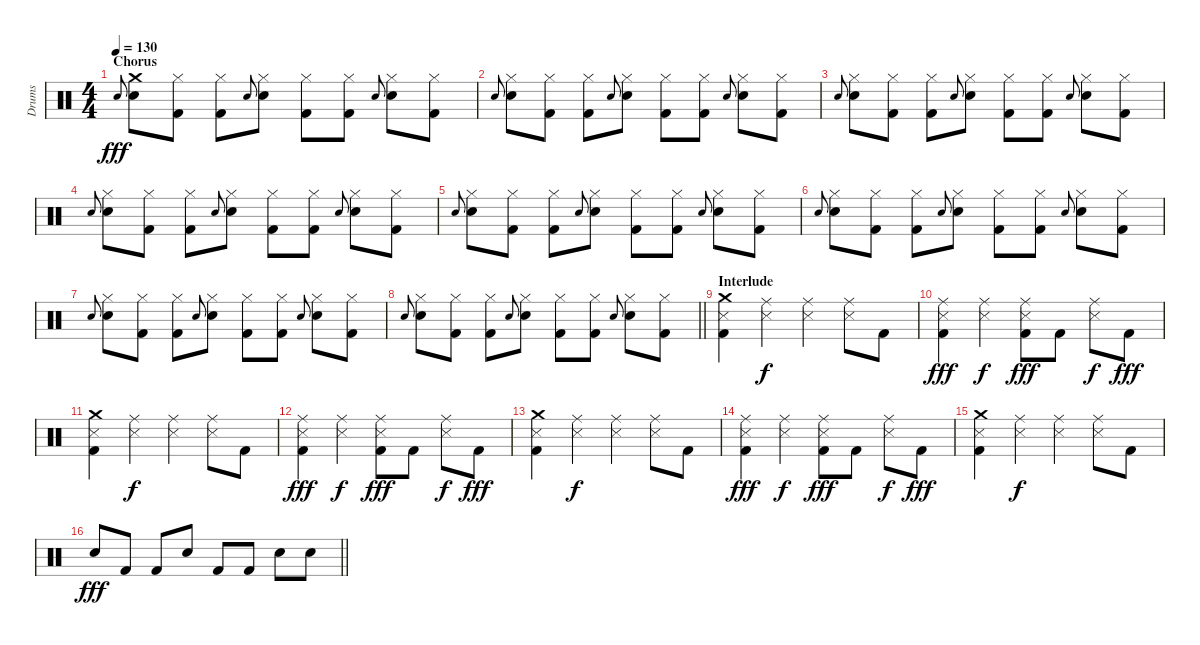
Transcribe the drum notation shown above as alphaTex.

\track ("Drums" "Drums") {instrument percussion}
\staff {score}
\articulation defaults
\ts (4 4)
\section ("" "Chorus")
\tempo 130
\clef neutral
\ks c "Electric Snare (hit)".8{gr onbeat dy fff}
("Crash medium (hit)" "Electric Snare (hit)").8 ("Hi-Hat (closed)" "Kick (hit) 2").8 ("Hi-Hat (closed)" "Kick (hit) 2").8 "Electric Snare (hit)".8{gr onbeat} ("Hi-Hat (closed)" "Electric Snare (hit)").8 ("Hi-Hat (closed)" "Kick (hit) 2").8 ("Hi-Hat (closed)" "Kick (hit) 2").8 "Electric Snare (hit)".8{gr onbeat} ("Hi-Hat (closed)" "Electric Snare (hit)").8 ("Hi-Hat (closed)" "Kick (hit) 2").8 |
"Electric Snare (hit)".8{gr onbeat} ("Hi-Hat (closed)" "Electric Snare (hit)").8 ("Hi-Hat (closed)" "Kick (hit) 2").8 ("Hi-Hat (closed)" "Kick (hit) 2").8 "Electric Snare (hit)".8{gr onbeat} ("Hi-Hat (closed)" "Electric Snare (hit)").8 ("Hi-Hat (closed)" "Kick (hit) 2").8 ("Hi-Hat (closed)" "Kick (hit) 2").8 "Electric Snare (hit)".8{gr onbeat} ("Hi-Hat (closed)" "Electric Snare (hit)").8 ("Hi-Hat (closed)" "Kick (hit) 2").8 |
"Electric Snare (hit)".8{gr onbeat} ("Hi-Hat (closed)" "Electric Snare (hit)").8 ("Hi-Hat (closed)" "Kick (hit) 2").8 ("Hi-Hat (closed)" "Kick (hit) 2").8 "Electric Snare (hit)".8{gr onbeat} ("Hi-Hat (closed)" "Electric Snare (hit)").8 ("Hi-Hat (closed)" "Kick (hit) 2").8 ("Hi-Hat (closed)" "Kick (hit) 2").8 "Electric Snare (hit)".8{gr onbeat} ("Hi-Hat (closed)" "Electric Snare (hit)").8 ("Hi-Hat (closed)" "Kick (hit) 2").8 |
"Electric Snare (hit)".8{gr onbeat} ("Hi-Hat (closed)" "Electric Snare (hit)").8 ("Hi-Hat (closed)" "Kick (hit) 2").8 ("Hi-Hat (closed)" "Kick (hit) 2").8 "Electric Snare (hit)".8{gr onbeat} ("Hi-Hat (closed)" "Electric Snare (hit)").8 ("Hi-Hat (closed)" "Kick (hit) 2").8 ("Hi-Hat (closed)" "Kick (hit) 2").8 "Electric Snare (hit)".8{gr onbeat} ("Hi-Hat (closed)" "Electric Snare (hit)").8 ("Hi-Hat (closed)" "Kick (hit) 2").8 |
"Electric Snare (hit)".8{gr onbeat} ("Hi-Hat (closed)" "Electric Snare (hit)").8 ("Hi-Hat (closed)" "Kick (hit) 2").8 ("Hi-Hat (closed)" "Kick (hit) 2").8 "Electric Snare (hit)".8{gr onbeat} ("Hi-Hat (closed)" "Electric Snare (hit)").8 ("Hi-Hat (closed)" "Kick (hit) 2").8 ("Hi-Hat (closed)" "Kick (hit) 2").8 "Electric Snare (hit)".8{gr onbeat} ("Hi-Hat (closed)" "Electric Snare (hit)").8 ("Hi-Hat (closed)" "Kick (hit) 2").8 |
"Electric Snare (hit)".8{gr onbeat} ("Hi-Hat (closed)" "Electric Snare (hit)").8 ("Hi-Hat (closed)" "Kick (hit) 2").8 ("Hi-Hat (closed)" "Kick (hit) 2").8 "Electric Snare (hit)".8{gr onbeat} ("Hi-Hat (closed)" "Electric Snare (hit)").8 ("Hi-Hat (closed)" "Kick (hit) 2").8 ("Hi-Hat (closed)" "Kick (hit) 2").8 "Electric Snare (hit)".8{gr onbeat} ("Hi-Hat (closed)" "Electric Snare (hit)").8 ("Hi-Hat (closed)" "Kick (hit) 2").8 |
"Electric Snare (hit)".8{gr onbeat} ("Hi-Hat (closed)" "Electric Snare (hit)").8 ("Hi-Hat (closed)" "Kick (hit) 2").8 ("Hi-Hat (closed)" "Kick (hit) 2").8 "Electric Snare (hit)".8{gr onbeat} ("Hi-Hat (closed)" "Electric Snare (hit)").8 ("Hi-Hat (closed)" "Kick (hit) 2").8 ("Hi-Hat (closed)" "Kick (hit) 2").8 "Electric Snare (hit)".8{gr onbeat} ("Hi-Hat (closed)" "Electric Snare (hit)").8 ("Hi-Hat (closed)" "Kick (hit) 2").8 |
\barLineRight lightlight "Electric Snare (hit)".8{gr onbeat}
("Hi-Hat (closed)" "Electric Snare (hit)").8 ("Hi-Hat (closed)" "Kick (hit) 2").8 ("Hi-Hat (closed)" "Kick (hit) 2").8 "Electric Snare (hit)".8{gr onbeat} ("Hi-Hat (closed)" "Electric Snare (hit)").8 ("Hi-Hat (closed)" "Kick (hit) 2").8 ("Hi-Hat (closed)" "Kick (hit) 2").8 "Electric Snare (hit)".8{gr onbeat} ("Hi-Hat (closed)" "Electric Snare (hit)").8 ("Hi-Hat (closed)" "Kick (hit) 2").8 |
\section ("" "Interlude")
("Crash medium (hit)" "Snare (side stick) 3" "Kick (hit) 2").4 ("Ride (middle)" "Snare (side stick) 3").4{dy f} ("Ride (middle)" "Snare (side stick) 3").4 ("Ride (middle)" "Snare (side stick) 3").8 "Kick (hit) 2".8 |
("Ride (middle)" "Snare (side stick) 3" "Kick (hit) 2").4{dy fff} ("Ride (middle)" "Snare (side stick) 3").4{dy f} ("Ride (middle)" "Snare (side stick) 3" "Kick (hit) 2").8{dy fff} "Kick (hit) 2".8 ("Ride (middle)" "Snare (side stick) 3").8{dy f} "Kick (hit) 2".8{dy fff} |
("Crash medium (hit)" "Snare (side stick) 3" "Kick (hit) 2").4 ("Ride (middle)" "Snare (side stick) 3").4{dy f} ("Ride (middle)" "Snare (side stick) 3").4 ("Ride (middle)" "Snare (side stick) 3").8 "Kick (hit) 2".8 |
("Ride (middle)" "Snare (side stick) 3" "Kick (hit) 2").4{dy fff} ("Ride (middle)" "Snare (side stick) 3").4{dy f} ("Ride (middle)" "Snare (side stick) 3" "Kick (hit) 2").8{dy fff} "Kick (hit) 2".8 ("Ride (middle)" "Snare (side stick) 3").8{dy f} "Kick (hit) 2".8{dy fff} |
("Crash medium (hit)" "Snare (side stick) 3" "Kick (hit) 2").4 ("Ride (middle)" "Snare (side stick) 3").4{dy f} ("Ride (middle)" "Snare (side stick) 3").4 ("Ride (middle)" "Snare (side stick) 3").8 "Kick (hit) 2".8 |
("Ride (middle)" "Snare (side stick) 3" "Kick (hit) 2").4{dy fff} ("Ride (middle)" "Snare (side stick) 3").4{dy f} ("Ride (middle)" "Snare (side stick) 3" "Kick (hit) 2").8{dy fff} "Kick (hit) 2".8 ("Ride (middle)" "Snare (side stick) 3").8{dy f} "Kick (hit) 2".8{dy fff} |
("Crash medium (hit)" "Snare (side stick) 3" "Kick (hit) 2").4 ("Ride (middle)" "Snare (side stick) 3").4{dy f} ("Ride (middle)" "Snare (side stick) 3").4 ("Ride (middle)" "Snare (side stick) 3").8 "Kick (hit) 2".8 |
\barLineRight lightlight "Electric Snare (hit)".8{dy fff} "Kick (hit) 2".8 "Kick (hit) 2".8 "Electric Snare (hit)".8 "Kick (hit) 2".8 "Kick (hit) 2".8 "Electric Snare (hit)".8 "Electric Snare (hit)".8
